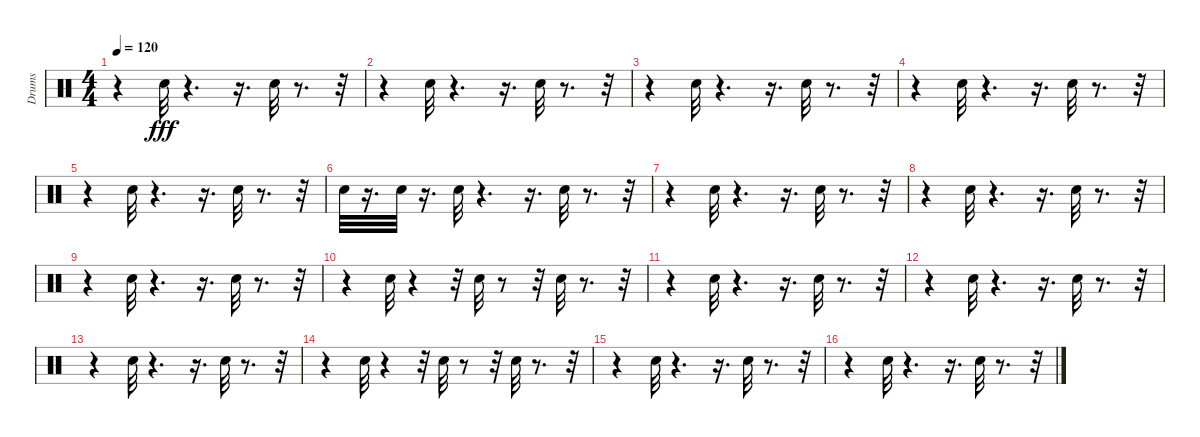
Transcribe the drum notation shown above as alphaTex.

\track ("Drums" "Drums") {instrument percussion}
\staff {score}
\articulation defaults
\ts (4 4)
\tempo 120
\clef neutral
\ks c
r.4{dy fff} "Snare (hit) 2".32 r.4{d} r.16{d} "Snare (hit) 2".32 r.8{d} r.32 |
r.4 "Snare (hit) 2".32 r.4{d} r.16{d} "Snare (hit) 2".32 r.8{d} r.32 |
r.4 "Snare (hit) 2".32 r.4{d} r.16{d} "Snare (hit) 2".32 r.8{d} r.32 |
r.4 "Snare (hit) 2".32 r.4{d} r.16{d} "Snare (hit) 2".32 r.8{d} r.32 |
r.4 "Snare (hit) 2".32 r.4{d} r.16{d} "Snare (hit) 2".32 r.8{d} r.32 |
"Snare (hit) 2".32 r.16{d} "Snare (hit) 2".32 r.16{d} "Snare (hit) 2".32 r.4{d} r.16{d} "Snare (hit) 2".32 r.8{d} r.32 |
r.4 "Snare (hit) 2".32 r.4{d} r.16{d} "Snare (hit) 2".32 r.8{d} r.32 |
r.4 "Snare (hit) 2".32 r.4{d} r.16{d} "Snare (hit) 2".32 r.8{d} r.32 |
r.4 "Snare (hit) 2".32 r.4{d} r.16{d} "Snare (hit) 2".32 r.8{d} r.32 |
r.4 "Snare (hit) 2".32 r.4 r.32 "Snare (hit) 2".32 r.8 r.32 "Snare (hit) 2".32 r.8{d} r.32 |
r.4 "Snare (hit) 2".32 r.4{d} r.16{d} "Snare (hit) 2".32 r.8{d} r.32 |
r.4 "Snare (hit) 2".32 r.4{d} r.16{d} "Snare (hit) 2".32 r.8{d} r.32 |
r.4 "Snare (hit) 2".32 r.4{d} r.16{d} "Snare (hit) 2".32 r.8{d} r.32 |
r.4 "Snare (hit) 2".32 r.4 r.32 "Snare (hit) 2".32 r.8 r.32 "Snare (hit) 2".32 r.8{d} r.32 |
r.4 "Snare (hit) 2".32 r.4{d} r.16{d} "Snare (hit) 2".32 r.8{d} r.32 |
r.4 "Snare (hit) 2".32 r.4{d} r.16{d} "Snare (hit) 2".32 r.8{d} r.32
